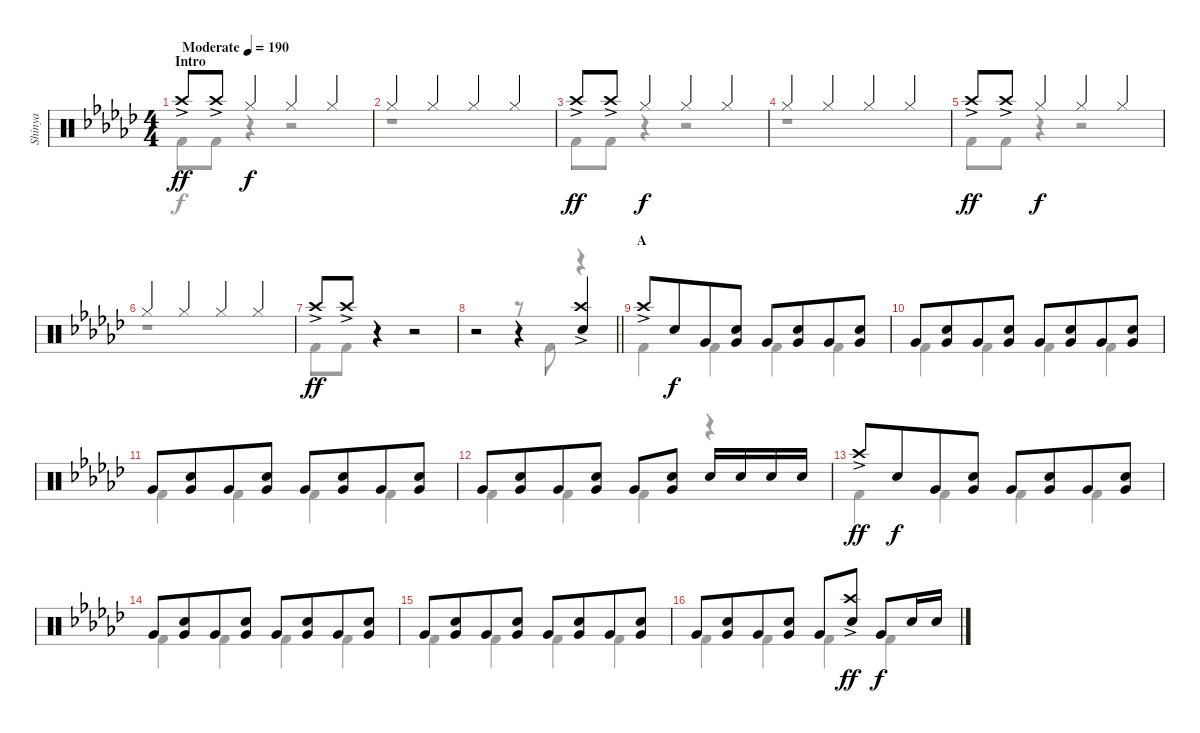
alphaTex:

\track ("Shinya" "Shinya") {instrument percussion}
\staff {score}
\articulation defaults
\voice
\ts (4 4)
\section ("" "Intro")
\tempo (190 "Moderate")
\clef neutral
\ks ebminor "Crash high (hit)"{ac}.8{dy ff} "Crash high (hit)"{ac}.8 "Hi-Hat (closed)".4{dy f} "Hi-Hat (closed)".4 "Hi-Hat (closed)".4
|
"Hi-Hat (closed)".4 "Hi-Hat (closed)".4 "Hi-Hat (closed)".4 "Hi-Hat (closed)".4 |
"Crash high (hit)"{ac}.8{dy ff} "Crash high (hit)"{ac}.8 "Hi-Hat (closed)".4{dy f} "Hi-Hat (closed)".4 "Hi-Hat (closed)".4 |
"Hi-Hat (closed)".4 "Hi-Hat (closed)".4 "Hi-Hat (closed)".4 "Hi-Hat (closed)".4 |
"Crash high (hit)"{ac}.8{dy ff} "Crash high (hit)"{ac}.8 "Hi-Hat (closed)".4{dy f} "Hi-Hat (closed)".4 "Hi-Hat (closed)".4 |
"Hi-Hat (closed)".4 "Hi-Hat (closed)".4 "Hi-Hat (closed)".4 "Hi-Hat (closed)".4 |
"Crash high (hit)"{ac}.8{dy ff} "Crash high (hit)"{ac}.8 r.4 r.2 |
\barLineRight lightlight
r.2 r.4 ("Crash high (hit)"{ac} "Snare (hit) 2").4 |
\section ("" "A")
"Crash high (hit)"{ac}.8 "Snare (hit) 2".8{dy f beam merge} "Very Low Tom (hit)".8 ("Snare (hit) 2" "Very Low Tom (hit)").8 "Very Low Tom (hit)".8 ("Snare (hit) 2" "Very Low Tom (hit)").8{beam merge} "Very Low Tom (hit)".8 ("Snare (hit) 2" "Very Low Tom (hit)").8 |
"Very Low Tom (hit)".8 ("Snare (hit) 2" "Very Low Tom (hit)").8{beam merge} "Very Low Tom (hit)".8 ("Snare (hit) 2" "Very Low Tom (hit)").8 "Very Low Tom (hit)".8 ("Snare (hit) 2" "Very Low Tom (hit)").8{beam merge} "Very Low Tom (hit)".8 ("Snare (hit) 2" "Very Low Tom (hit)").8 |
"Very Low Tom (hit)".8 ("Snare (hit) 2" "Very Low Tom (hit)").8{beam merge} "Very Low Tom (hit)".8 ("Snare (hit) 2" "Very Low Tom (hit)").8 "Very Low Tom (hit)".8 ("Snare (hit) 2" "Very Low Tom (hit)").8{beam merge} "Very Low Tom (hit)".8 ("Snare (hit) 2" "Very Low Tom (hit)").8 |
"Very Low Tom (hit)".8 ("Snare (hit) 2" "Very Low Tom (hit)").8{beam merge} "Very Low Tom (hit)".8 ("Snare (hit) 2" "Very Low Tom (hit)").8 "Very Low Tom (hit)".8 ("Snare (hit) 2" "Very Low Tom (hit)").8 "Snare (hit) 2".16 "Snare (hit) 2".16 "Snare (hit) 2".16 "Snare (hit) 2".16 |
"Crash high (hit)"{ac}.8{dy ff} "Snare (hit) 2".8{dy f beam merge} "Very Low Tom (hit)".8 ("Snare (hit) 2" "Very Low Tom (hit)").8 "Very Low Tom (hit)".8 ("Snare (hit) 2" "Very Low Tom (hit)").8{beam merge} "Very Low Tom (hit)".8 ("Snare (hit) 2" "Very Low Tom (hit)").8 |
"Very Low Tom (hit)".8 ("Snare (hit) 2" "Very Low Tom (hit)").8{beam merge} "Very Low Tom (hit)".8 ("Snare (hit) 2" "Very Low Tom (hit)").8 "Very Low Tom (hit)".8 ("Snare (hit) 2" "Very Low Tom (hit)").8{beam merge} "Very Low Tom (hit)".8 ("Snare (hit) 2" "Very Low Tom (hit)").8 |
"Very Low Tom (hit)".8 ("Snare (hit) 2" "Very Low Tom (hit)").8{beam merge} "Very Low Tom (hit)".8 ("Snare (hit) 2" "Very Low Tom (hit)").8 "Very Low Tom (hit)".8 ("Snare (hit) 2" "Very Low Tom (hit)").8{beam merge} "Very Low Tom (hit)".8 ("Snare (hit) 2" "Very Low Tom (hit)").8 |
"Very Low Tom (hit)".8 ("Snare (hit) 2" "Very Low Tom (hit)").8{beam merge} "Very Low Tom (hit)".8 ("Snare (hit) 2" "Very Low Tom (hit)").8 "Very Low Tom (hit)".8 ("Crash high (hit)"{ac} "Snare (hit) 2").8{dy ff} "Very Low Tom (hit)".8{dy f} "Snare (hit) 2".16 "Snare (hit) 2".16
\voice
\clef neutral
\ottava regular
\simile none
\ks ebminor "Kick (hit) 2".8{dy f} "Kick (hit) 2".8
r.4 r.2 |
r.1 |
"Kick (hit) 2".8 "Kick (hit) 2".8 r.4 r.2 |
r.1 |
"Kick (hit) 2".8 "Kick (hit) 2".8 r.4 r.2 |
r.1 |
"Kick (hit) 2".8 "Kick (hit) 2".8 r.4 r.2 |
\barLineRight lightlight
r.2 r.8 "Kick (hit) 2".8 r.4 |
"Kick (hit) 2".4 "Kick (hit) 2".4 "Kick (hit) 2".4 "Kick (hit) 2".4 |
"Kick (hit) 2".4 "Kick (hit) 2".4 "Kick (hit) 2".4 "Kick (hit) 2".4 |
"Kick (hit) 2".4 "Kick (hit) 2".4 "Kick (hit) 2".4 "Kick (hit) 2".4 |
"Kick (hit) 2".4 "Kick (hit) 2".4 "Kick (hit) 2".4 r.4 |
"Kick (hit) 2".4 "Kick (hit) 2".4 "Kick (hit) 2".4 "Kick (hit) 2".4 |
"Kick (hit) 2".4 "Kick (hit) 2".4 "Kick (hit) 2".4 "Kick (hit) 2".4 |
"Kick (hit) 2".4 "Kick (hit) 2".4 "Kick (hit) 2".4 "Kick (hit) 2".4 |
"Kick (hit) 2".4 "Kick (hit) 2".4 "Kick (hit) 2".4 "Kick (hit) 2".4
